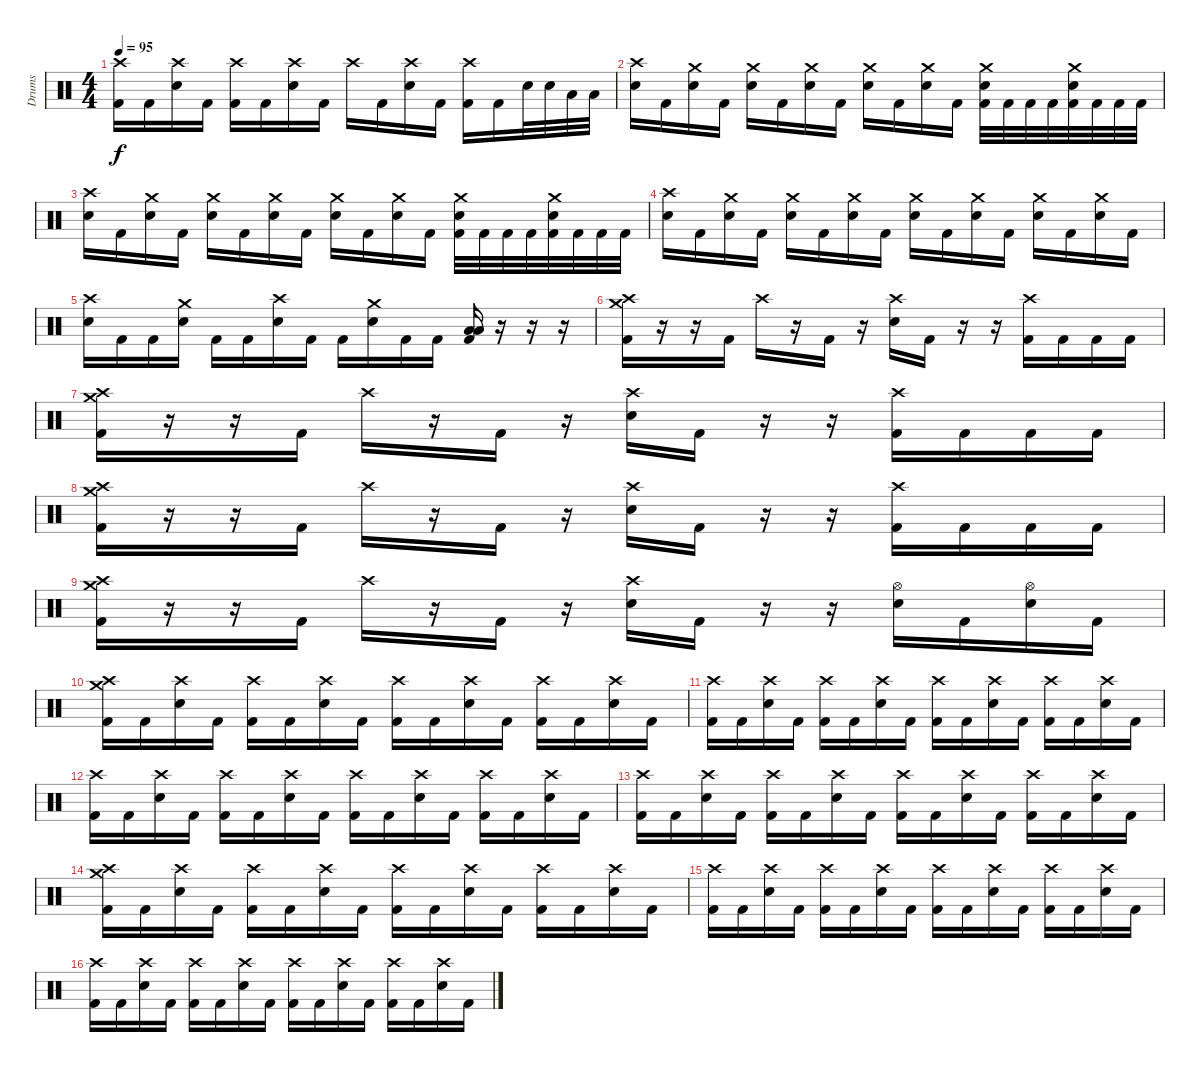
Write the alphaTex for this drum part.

\track ("Drums" "Drums") {instrument percussion}
\staff {score}
\articulation defaults
\ts (4 4)
\tempo 95
\clef neutral
\ks c
("Crash high (hit)" "Kick (hit) 2").16{dy f} "Kick (hit) 2".16 ("Crash high (hit)" "Electric Snare (hit)").16 "Kick (hit) 2".16 ("Crash high (hit)" "Kick (hit) 2").16 "Kick (hit) 2".16 ("Crash high (hit)" "Electric Snare (hit)").16 "Kick (hit) 2".16 "Crash high (hit)".16 "Kick (hit) 2".16 ("Crash high (hit)" "Electric Snare (hit)").16 "Kick (hit) 2".16 ("Crash high (hit)" "Kick (hit) 2").16 "Kick (hit) 2".16 "Electric Snare (hit)".32 "Electric Snare (hit)".32 "Low Tom (hit)".32 "Low Tom (hit)".32 |
("Crash high (hit)" "Electric Snare (hit)").16 "Kick (hit) 2".16 ("Crash medium (hit)" "Electric Snare (hit)").16 "Kick (hit) 2".16 ("Crash medium (hit)" "Electric Snare (hit)").16 "Kick (hit) 2".16 ("Crash medium (hit)" "Electric Snare (hit)").16 "Kick (hit) 2".16 ("Crash medium (hit)" "Electric Snare (hit)").16 "Kick (hit) 2".16 ("Crash medium (hit)" "Electric Snare (hit)").16 "Kick (hit) 2".16 ("Crash medium (hit)" "Electric Snare (hit)" "Kick (hit) 2").32 "Kick (hit) 2".32 "Kick (hit) 2".32 "Kick (hit) 2".32 ("Crash medium (hit)" "Electric Snare (hit)" "Kick (hit) 2").32 "Kick (hit) 2".32 "Kick (hit) 2".32 "Kick (hit) 2".32 |
("Crash high (hit)" "Electric Snare (hit)").16 "Kick (hit) 2".16 ("Crash medium (hit)" "Electric Snare (hit)").16 "Kick (hit) 2".16 ("Crash medium (hit)" "Electric Snare (hit)").16 "Kick (hit) 2".16 ("Crash medium (hit)" "Electric Snare (hit)").16 "Kick (hit) 2".16 ("Crash medium (hit)" "Electric Snare (hit)").16 "Kick (hit) 2".16 ("Crash medium (hit)" "Electric Snare (hit)").16 "Kick (hit) 2".16 ("Crash medium (hit)" "Electric Snare (hit)" "Kick (hit) 2").32 "Kick (hit) 2".32 "Kick (hit) 2".32 "Kick (hit) 2".32 ("Crash medium (hit)" "Electric Snare (hit)" "Kick (hit) 2").32 "Kick (hit) 2".32 "Kick (hit) 2".32 "Kick (hit) 2".32 |
("Crash high (hit)" "Electric Snare (hit)").16 "Kick (hit) 2".16 ("Crash medium (hit)" "Electric Snare (hit)").16 "Kick (hit) 2".16 ("Crash medium (hit)" "Electric Snare (hit)").16 "Kick (hit) 2".16 ("Crash medium (hit)" "Electric Snare (hit)").16 "Kick (hit) 2".16 ("Crash medium (hit)" "Electric Snare (hit)").16 "Kick (hit) 2".16 ("Crash medium (hit)" "Electric Snare (hit)").16 "Kick (hit) 2".16 ("Crash medium (hit)" "Electric Snare (hit)").16 "Kick (hit) 2".16 ("Crash medium (hit)" "Electric Snare (hit)").16 "Kick (hit) 2".16 |
("Crash high (hit)" "Electric Snare (hit)").16 "Kick (hit) 2".16 "Kick (hit) 2".16 ("Crash medium (hit)" "Electric Snare (hit)").16 "Kick (hit) 2".16 "Kick (hit) 2".16 ("Crash high (hit)" "Electric Snare (hit)").16 "Kick (hit) 2".16 "Kick (hit) 2".16 ("Crash medium (hit)" "Electric Snare (hit)").16 "Kick (hit) 2".16 "Kick (hit) 2".16 ("Low Tom (hit)" "Low Floor Tom (hit)" "Kick (hit) 2").16 r.16 r.16 r.16 |
("Crash medium (hit)" "Crash high (hit)" "Kick (hit) 2").16 r.16 r.16 "Kick (hit) 2".16 "Crash high (hit)".16 r.16 "Kick (hit) 2".16 r.16 ("Crash high (hit)" "Electric Snare (hit)").16 "Kick (hit) 2".16 r.16 r.16 ("Crash high (hit)" "Kick (hit) 2").16 "Kick (hit) 2".16 "Kick (hit) 2".16 "Kick (hit) 2".16 |
("Crash medium (hit)" "Crash high (hit)" "Kick (hit) 2").16 r.16 r.16 "Kick (hit) 2".16 "Crash high (hit)".16 r.16 "Kick (hit) 2".16 r.16 ("Crash high (hit)" "Electric Snare (hit)").16 "Kick (hit) 2".16 r.16 r.16 ("Crash high (hit)" "Kick (hit) 2").16 "Kick (hit) 2".16 "Kick (hit) 2".16 "Kick (hit) 2".16 |
("Crash medium (hit)" "Crash high (hit)" "Kick (hit) 2").16 r.16 r.16 "Kick (hit) 2".16 "Crash high (hit)".16 r.16 "Kick (hit) 2".16 r.16 ("Crash high (hit)" "Electric Snare (hit)").16 "Kick (hit) 2".16 r.16 r.16 ("Crash high (hit)" "Kick (hit) 2").16 "Kick (hit) 2".16 "Kick (hit) 2".16 "Kick (hit) 2".16 |
("Crash medium (hit)" "Crash high (hit)" "Kick (hit) 2").16 r.16 r.16 "Kick (hit) 2".16 "Crash high (hit)".16 r.16 "Kick (hit) 2".16 r.16 ("Crash high (hit)" "Electric Snare (hit)").16 "Kick (hit) 2".16 r.16 r.16 ("Hi-Hat (open)" "Electric Snare (hit)").16 "Kick (hit) 2".16 ("Hi-Hat (open)" "Electric Snare (hit)").16 "Kick (hit) 2".16 |
("Crash medium (hit)" "Crash high (hit)" "Kick (hit) 2").16 "Kick (hit) 2".16 ("Crash high (hit)" "Electric Snare (hit)").16 "Kick (hit) 2".16 ("Crash high (hit)" "Kick (hit) 2").16 "Kick (hit) 2".16 ("Crash high (hit)" "Electric Snare (hit)").16 "Kick (hit) 2".16 ("Crash high (hit)" "Kick (hit) 2").16 "Kick (hit) 2".16 ("Crash high (hit)" "Electric Snare (hit)").16 "Kick (hit) 2".16 ("Crash high (hit)" "Kick (hit) 2").16 "Kick (hit) 2".16 ("Crash high (hit)" "Electric Snare (hit)").16 "Kick (hit) 2".16 |
("Crash high (hit)" "Kick (hit) 2").16 "Kick (hit) 2".16 ("Crash high (hit)" "Electric Snare (hit)").16 "Kick (hit) 2".16 ("Crash high (hit)" "Kick (hit) 2").16 "Kick (hit) 2".16 ("Crash high (hit)" "Electric Snare (hit)").16 "Kick (hit) 2".16 ("Crash high (hit)" "Kick (hit) 2").16 "Kick (hit) 2".16 ("Crash high (hit)" "Electric Snare (hit)").16 "Kick (hit) 2".16 ("Crash high (hit)" "Kick (hit) 2").16 "Kick (hit) 2".16 ("Crash high (hit)" "Electric Snare (hit)").16 "Kick (hit) 2".16 |
("Crash high (hit)" "Kick (hit) 2").16 "Kick (hit) 2".16 ("Crash high (hit)" "Electric Snare (hit)").16 "Kick (hit) 2".16 ("Crash high (hit)" "Kick (hit) 2").16 "Kick (hit) 2".16 ("Crash high (hit)" "Electric Snare (hit)").16 "Kick (hit) 2".16 ("Crash high (hit)" "Kick (hit) 2").16 "Kick (hit) 2".16 ("Crash high (hit)" "Electric Snare (hit)").16 "Kick (hit) 2".16 ("Crash high (hit)" "Kick (hit) 2").16 "Kick (hit) 2".16 ("Crash high (hit)" "Electric Snare (hit)").16 "Kick (hit) 2".16 |
("Crash high (hit)" "Kick (hit) 2").16 "Kick (hit) 2".16 ("Crash high (hit)" "Electric Snare (hit)").16 "Kick (hit) 2".16 ("Crash high (hit)" "Kick (hit) 2").16 "Kick (hit) 2".16 ("Crash high (hit)" "Electric Snare (hit)").16 "Kick (hit) 2".16 ("Crash high (hit)" "Kick (hit) 2").16 "Kick (hit) 2".16 ("Crash high (hit)" "Electric Snare (hit)").16 "Kick (hit) 2".16 ("Crash high (hit)" "Kick (hit) 2").16 "Kick (hit) 2".16 ("Crash high (hit)" "Electric Snare (hit)").16 "Kick (hit) 2".16 |
("Crash medium (hit)" "Crash high (hit)" "Kick (hit) 2").16 "Kick (hit) 2".16 ("Crash high (hit)" "Electric Snare (hit)").16 "Kick (hit) 2".16 ("Crash high (hit)" "Kick (hit) 2").16 "Kick (hit) 2".16 ("Crash high (hit)" "Electric Snare (hit)").16 "Kick (hit) 2".16 ("Crash high (hit)" "Kick (hit) 2").16 "Kick (hit) 2".16 ("Crash high (hit)" "Electric Snare (hit)").16 "Kick (hit) 2".16 ("Crash high (hit)" "Kick (hit) 2").16 "Kick (hit) 2".16 ("Crash high (hit)" "Electric Snare (hit)").16 "Kick (hit) 2".16 |
("Crash high (hit)" "Kick (hit) 2").16 "Kick (hit) 2".16 ("Crash high (hit)" "Electric Snare (hit)").16 "Kick (hit) 2".16 ("Crash high (hit)" "Kick (hit) 2").16 "Kick (hit) 2".16 ("Crash high (hit)" "Electric Snare (hit)").16 "Kick (hit) 2".16 ("Crash high (hit)" "Kick (hit) 2").16 "Kick (hit) 2".16 ("Crash high (hit)" "Electric Snare (hit)").16 "Kick (hit) 2".16 ("Crash high (hit)" "Kick (hit) 2").16 "Kick (hit) 2".16 ("Crash high (hit)" "Electric Snare (hit)").16 "Kick (hit) 2".16 |
("Crash high (hit)" "Kick (hit) 2").16 "Kick (hit) 2".16 ("Crash high (hit)" "Electric Snare (hit)").16 "Kick (hit) 2".16 ("Crash high (hit)" "Kick (hit) 2").16 "Kick (hit) 2".16 ("Crash high (hit)" "Electric Snare (hit)").16 "Kick (hit) 2".16 ("Crash high (hit)" "Kick (hit) 2").16 "Kick (hit) 2".16 ("Crash high (hit)" "Electric Snare (hit)").16 "Kick (hit) 2".16 ("Crash high (hit)" "Kick (hit) 2").16 "Kick (hit) 2".16 ("Crash high (hit)" "Electric Snare (hit)").16 "Kick (hit) 2".16
